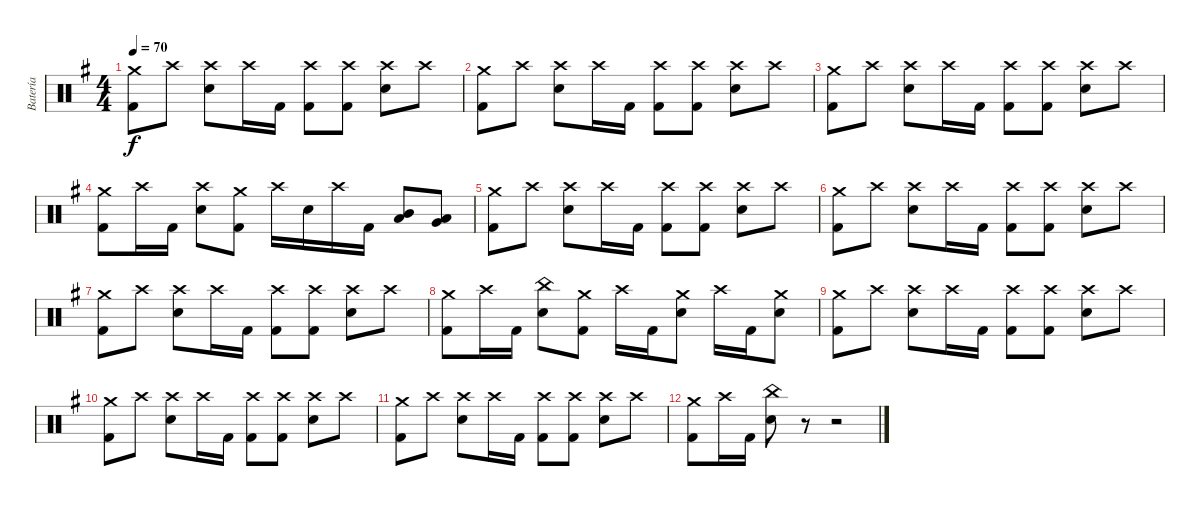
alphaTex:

\track ("Batería" "Batería") {instrument percussion}
\staff {score}
\articulation defaults
\ts (4 4)
\tempo 70
\clef neutral
\ks g
("Crash medium (hit)" "Kick (hit) 2").8{dy f} "Crash high (hit)".8 ("Crash high (hit)" "Electric Snare (hit)").8 "Crash high (hit)".16 "Kick (hit) 2".16 ("Crash high (hit)" "Kick (hit) 2").8 ("Crash high (hit)" "Kick (hit) 2").8 ("Crash high (hit)" "Electric Snare (hit)").8 "Crash high (hit)".8 |
("Crash medium (hit)" "Kick (hit) 2").8 "Crash high (hit)".8 ("Crash high (hit)" "Electric Snare (hit)").8 "Crash high (hit)".16 "Kick (hit) 2".16 ("Crash high (hit)" "Kick (hit) 2").8 ("Crash high (hit)" "Kick (hit) 2").8 ("Crash high (hit)" "Electric Snare (hit)").8 "Crash high (hit)".8 |
("Crash medium (hit)" "Kick (hit) 2").8{volume 6} "Crash high (hit)".8 ("Crash high (hit)" "Electric Snare (hit)").8 "Crash high (hit)".16 "Kick (hit) 2".16 ("Crash high (hit)" "Kick (hit) 2").8 ("Crash high (hit)" "Kick (hit) 2").8 ("Crash high (hit)" "Electric Snare (hit)").8 "Crash high (hit)".8 |
("Crash medium (hit)" "Kick (hit) 2").8 "Crash high (hit)".16 "Kick (hit) 2".16 ("Crash high (hit)" "Electric Snare (hit)").8 ("Crash medium (hit)" "Kick (hit) 2").8 "Crash high (hit)".16 "Electric Snare (hit)".16 "Crash high (hit)".16 "Kick (hit) 2".16 ("Mid Tom (hit)" "Low Tom (hit)").8 ("Low Tom (hit)" "Very Low Tom (hit)").8 |
("Crash medium (hit)" "Kick (hit) 2").8 "Crash high (hit)".8 ("Crash high (hit)" "Electric Snare (hit)").8 "Crash high (hit)".16 "Kick (hit) 2".16 ("Crash high (hit)" "Kick (hit) 2").8 ("Crash high (hit)" "Kick (hit) 2").8 ("Crash high (hit)" "Electric Snare (hit)").8 "Crash high (hit)".8 |
("Crash medium (hit)" "Kick (hit) 2").8 "Crash high (hit)".8 ("Crash high (hit)" "Electric Snare (hit)").8 "Crash high (hit)".16 "Kick (hit) 2".16 ("Crash high (hit)" "Kick (hit) 2").8 ("Crash high (hit)" "Kick (hit) 2").8 ("Crash high (hit)" "Electric Snare (hit)").8 "Crash high (hit)".8 |
("Crash medium (hit)" "Kick (hit) 2").8{volume 2} "Crash high (hit)".8 ("Crash high (hit)" "Electric Snare (hit)").8 "Crash high (hit)".16 "Kick (hit) 2".16 ("Crash high (hit)" "Kick (hit) 2").8 ("Crash high (hit)" "Kick (hit) 2").8 ("Crash high (hit)" "Electric Snare (hit)").8 "Crash high (hit)".8 |
("Crash medium (hit)" "Kick (hit) 2").8 "Crash high (hit)".16 "Kick (hit) 2".16 ("China (hit)" "Electric Snare (hit)").8 ("Crash medium (hit)" "Kick (hit) 2").8 "Crash high (hit)".16 "Kick (hit) 2".16 ("Crash medium (hit)" "Electric Snare (hit)").8 "Crash high (hit)".16 "Kick (hit) 2".16 ("Crash medium (hit)" "Electric Snare (hit)").8 |
("Crash medium (hit)" "Kick (hit) 2").8 "Crash high (hit)".8 ("Crash high (hit)" "Electric Snare (hit)").8 "Crash high (hit)".16 "Kick (hit) 2".16 ("Crash high (hit)" "Kick (hit) 2").8 ("Crash high (hit)" "Kick (hit) 2").8 ("Crash high (hit)" "Electric Snare (hit)").8 "Crash high (hit)".8 |
("Crash medium (hit)" "Kick (hit) 2").8 "Crash high (hit)".8 ("Crash high (hit)" "Electric Snare (hit)").8 "Crash high (hit)".16 "Kick (hit) 2".16 ("Crash high (hit)" "Kick (hit) 2").8 ("Crash high (hit)" "Kick (hit) 2").8 ("Crash high (hit)" "Electric Snare (hit)").8 "Crash high (hit)".8 |
("Crash medium (hit)" "Kick (hit) 2").8{volume 0} "Crash high (hit)".8 ("Crash high (hit)" "Electric Snare (hit)").8 "Crash high (hit)".16 "Kick (hit) 2".16 ("Crash high (hit)" "Kick (hit) 2").8 ("Crash high (hit)" "Kick (hit) 2").8 ("Crash high (hit)" "Electric Snare (hit)").8 "Crash high (hit)".8 |
("Crash medium (hit)" "Kick (hit) 2").8 "Crash high (hit)".16 "Kick (hit) 2".16 ("China (hit)" "Electric Snare (hit)").8 r.8 r.2
